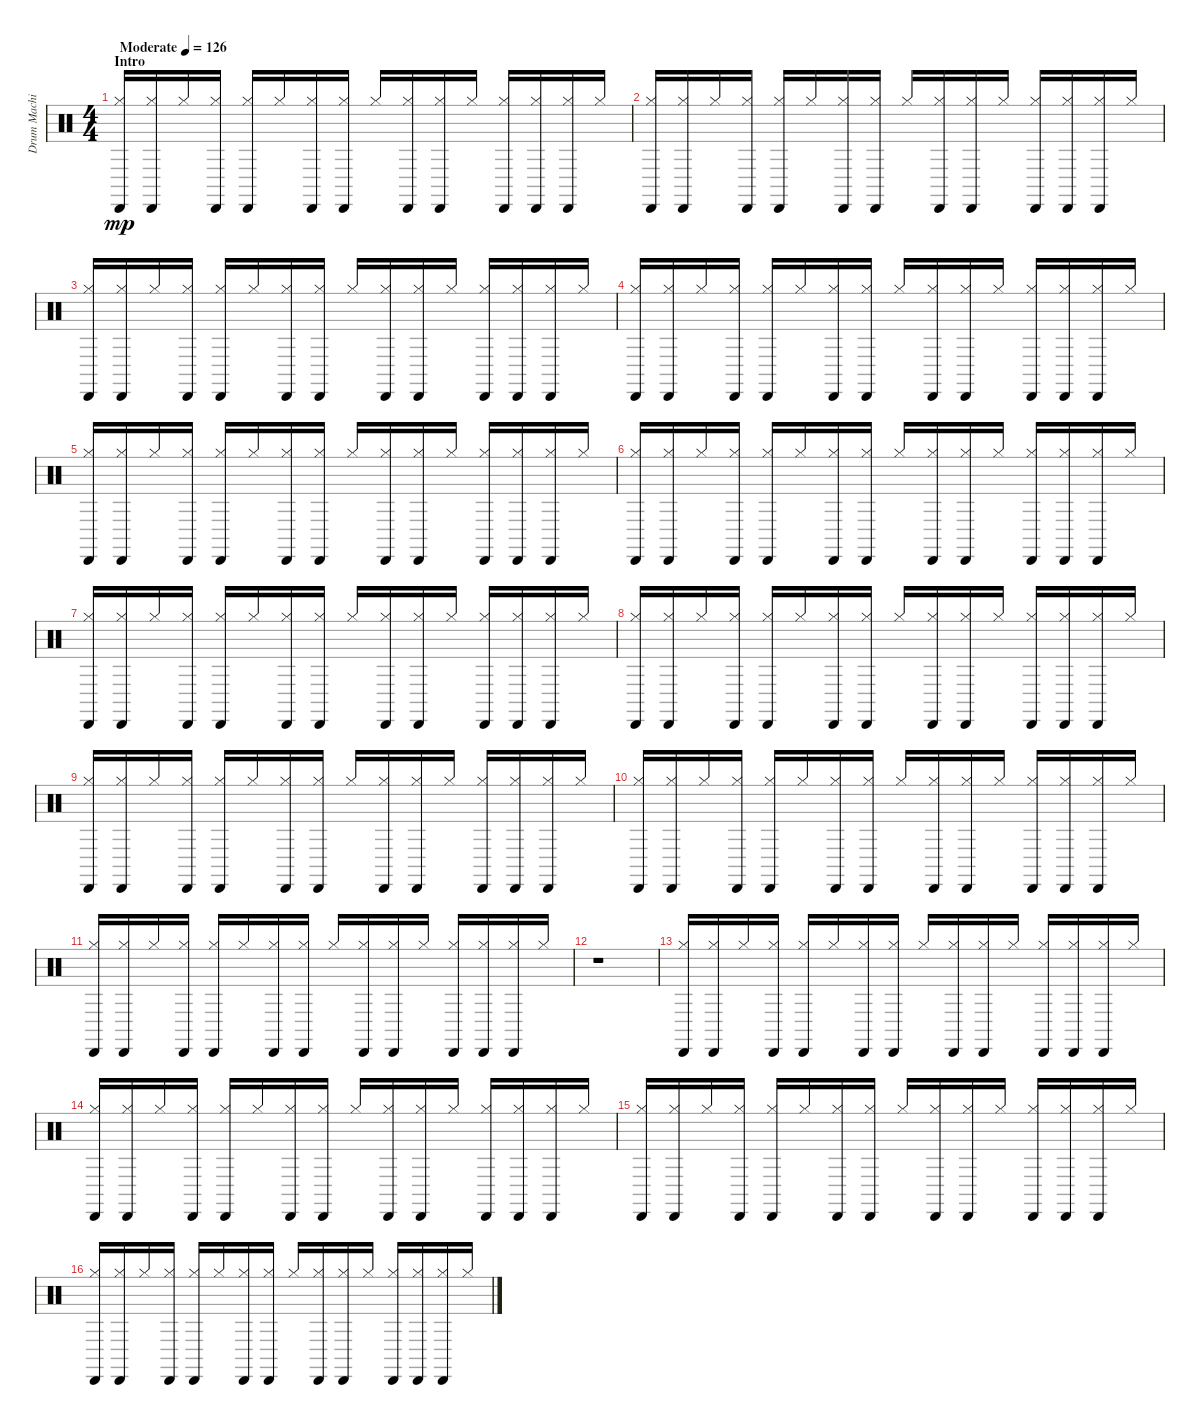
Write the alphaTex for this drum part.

\track ("Drum Machine" "Drum Machi") {instrument percussion}
\staff {score}
\articulation defaults
\ts (4 4)
\section ("" "Intro")
\tempo (126 "Moderate")
\clef neutral
\ks c
("Cabasa (hit)" "Hi-Hat (closed)").16{dy mp} ("Cabasa (hit)" "Hi-Hat (closed)").16 "Hi-Hat (closed)".16 ("Cabasa (hit)" "Hi-Hat (closed)").16 ("Cabasa (hit)" "Hi-Hat (closed)").16 "Hi-Hat (closed)".16 ("Cabasa (hit)" "Hi-Hat (closed)").16 ("Cabasa (hit)" "Hi-Hat (closed)").16 "Hi-Hat (closed)".16 ("Cabasa (hit)" "Hi-Hat (closed)").16 ("Cabasa (hit)" "Hi-Hat (closed)").16 "Hi-Hat (closed)".16 ("Cabasa (hit)" "Hi-Hat (closed)").16 ("Cabasa (hit)" "Hi-Hat (closed)").16 ("Cabasa (hit)" "Hi-Hat (closed)").16 "Hi-Hat (closed)".16 |
("Cabasa (hit)" "Hi-Hat (closed)").16 ("Cabasa (hit)" "Hi-Hat (closed)").16 "Hi-Hat (closed)".16 ("Cabasa (hit)" "Hi-Hat (closed)").16 ("Cabasa (hit)" "Hi-Hat (closed)").16 "Hi-Hat (closed)".16 ("Cabasa (hit)" "Hi-Hat (closed)").16 ("Cabasa (hit)" "Hi-Hat (closed)").16 "Hi-Hat (closed)".16 ("Cabasa (hit)" "Hi-Hat (closed)").16 ("Cabasa (hit)" "Hi-Hat (closed)").16 "Hi-Hat (closed)".16 ("Cabasa (hit)" "Hi-Hat (closed)").16 ("Cabasa (hit)" "Hi-Hat (closed)").16 ("Cabasa (hit)" "Hi-Hat (closed)").16 "Hi-Hat (closed)".16 |
("Cabasa (hit)" "Hi-Hat (closed)").16 ("Cabasa (hit)" "Hi-Hat (closed)").16 "Hi-Hat (closed)".16 ("Cabasa (hit)" "Hi-Hat (closed)").16 ("Cabasa (hit)" "Hi-Hat (closed)").16 "Hi-Hat (closed)".16 ("Cabasa (hit)" "Hi-Hat (closed)").16 ("Cabasa (hit)" "Hi-Hat (closed)").16 "Hi-Hat (closed)".16 ("Cabasa (hit)" "Hi-Hat (closed)").16 ("Cabasa (hit)" "Hi-Hat (closed)").16 "Hi-Hat (closed)".16 ("Cabasa (hit)" "Hi-Hat (closed)").16 ("Cabasa (hit)" "Hi-Hat (closed)").16 ("Cabasa (hit)" "Hi-Hat (closed)").16 "Hi-Hat (closed)".16 |
("Cabasa (hit)" "Hi-Hat (closed)").16 ("Cabasa (hit)" "Hi-Hat (closed)").16 "Hi-Hat (closed)".16 ("Cabasa (hit)" "Hi-Hat (closed)").16 ("Cabasa (hit)" "Hi-Hat (closed)").16 "Hi-Hat (closed)".16 ("Cabasa (hit)" "Hi-Hat (closed)").16 ("Cabasa (hit)" "Hi-Hat (closed)").16 "Hi-Hat (closed)".16 ("Cabasa (hit)" "Hi-Hat (closed)").16 ("Cabasa (hit)" "Hi-Hat (closed)").16 "Hi-Hat (closed)".16 ("Cabasa (hit)" "Hi-Hat (closed)").16 ("Cabasa (hit)" "Hi-Hat (closed)").16 ("Cabasa (hit)" "Hi-Hat (closed)").16 "Hi-Hat (closed)".16 |
("Cabasa (hit)" "Hi-Hat (closed)").16 ("Cabasa (hit)" "Hi-Hat (closed)").16 "Hi-Hat (closed)".16 ("Cabasa (hit)" "Hi-Hat (closed)").16 ("Cabasa (hit)" "Hi-Hat (closed)").16 "Hi-Hat (closed)".16 ("Cabasa (hit)" "Hi-Hat (closed)").16 ("Cabasa (hit)" "Hi-Hat (closed)").16 "Hi-Hat (closed)".16 ("Cabasa (hit)" "Hi-Hat (closed)").16 ("Cabasa (hit)" "Hi-Hat (closed)").16 "Hi-Hat (closed)".16 ("Cabasa (hit)" "Hi-Hat (closed)").16 ("Cabasa (hit)" "Hi-Hat (closed)").16 ("Cabasa (hit)" "Hi-Hat (closed)").16 "Hi-Hat (closed)".16 |
("Cabasa (hit)" "Hi-Hat (closed)").16 ("Cabasa (hit)" "Hi-Hat (closed)").16 "Hi-Hat (closed)".16 ("Cabasa (hit)" "Hi-Hat (closed)").16 ("Cabasa (hit)" "Hi-Hat (closed)").16 "Hi-Hat (closed)".16 ("Cabasa (hit)" "Hi-Hat (closed)").16 ("Cabasa (hit)" "Hi-Hat (closed)").16 "Hi-Hat (closed)".16 ("Cabasa (hit)" "Hi-Hat (closed)").16 ("Cabasa (hit)" "Hi-Hat (closed)").16 "Hi-Hat (closed)".16 ("Cabasa (hit)" "Hi-Hat (closed)").16 ("Cabasa (hit)" "Hi-Hat (closed)").16 ("Cabasa (hit)" "Hi-Hat (closed)").16 "Hi-Hat (closed)".16 |
("Cabasa (hit)" "Hi-Hat (closed)").16 ("Cabasa (hit)" "Hi-Hat (closed)").16 "Hi-Hat (closed)".16 ("Cabasa (hit)" "Hi-Hat (closed)").16 ("Cabasa (hit)" "Hi-Hat (closed)").16 "Hi-Hat (closed)".16 ("Cabasa (hit)" "Hi-Hat (closed)").16 ("Cabasa (hit)" "Hi-Hat (closed)").16 "Hi-Hat (closed)".16 ("Cabasa (hit)" "Hi-Hat (closed)").16 ("Cabasa (hit)" "Hi-Hat (closed)").16 "Hi-Hat (closed)".16 ("Cabasa (hit)" "Hi-Hat (closed)").16 ("Cabasa (hit)" "Hi-Hat (closed)").16 ("Cabasa (hit)" "Hi-Hat (closed)").16 "Hi-Hat (closed)".16 |
("Cabasa (hit)" "Hi-Hat (closed)").16 ("Cabasa (hit)" "Hi-Hat (closed)").16 "Hi-Hat (closed)".16 ("Cabasa (hit)" "Hi-Hat (closed)").16 ("Cabasa (hit)" "Hi-Hat (closed)").16 "Hi-Hat (closed)".16 ("Cabasa (hit)" "Hi-Hat (closed)").16 ("Cabasa (hit)" "Hi-Hat (closed)").16 "Hi-Hat (closed)".16 ("Cabasa (hit)" "Hi-Hat (closed)").16 ("Cabasa (hit)" "Hi-Hat (closed)").16 "Hi-Hat (closed)".16 ("Cabasa (hit)" "Hi-Hat (closed)").16 ("Cabasa (hit)" "Hi-Hat (closed)").16 ("Cabasa (hit)" "Hi-Hat (closed)").16 "Hi-Hat (closed)".16 |
("Cabasa (hit)" "Hi-Hat (closed)").16 ("Cabasa (hit)" "Hi-Hat (closed)").16 "Hi-Hat (closed)".16 ("Cabasa (hit)" "Hi-Hat (closed)").16 ("Cabasa (hit)" "Hi-Hat (closed)").16 "Hi-Hat (closed)".16 ("Cabasa (hit)" "Hi-Hat (closed)").16 ("Cabasa (hit)" "Hi-Hat (closed)").16 "Hi-Hat (closed)".16 ("Cabasa (hit)" "Hi-Hat (closed)").16 ("Cabasa (hit)" "Hi-Hat (closed)").16 "Hi-Hat (closed)".16 ("Cabasa (hit)" "Hi-Hat (closed)").16 ("Cabasa (hit)" "Hi-Hat (closed)").16 ("Cabasa (hit)" "Hi-Hat (closed)").16 "Hi-Hat (closed)".16 |
("Cabasa (hit)" "Hi-Hat (closed)").16 ("Cabasa (hit)" "Hi-Hat (closed)").16 "Hi-Hat (closed)".16 ("Cabasa (hit)" "Hi-Hat (closed)").16 ("Cabasa (hit)" "Hi-Hat (closed)").16 "Hi-Hat (closed)".16 ("Cabasa (hit)" "Hi-Hat (closed)").16 ("Cabasa (hit)" "Hi-Hat (closed)").16 "Hi-Hat (closed)".16 ("Cabasa (hit)" "Hi-Hat (closed)").16 ("Cabasa (hit)" "Hi-Hat (closed)").16 "Hi-Hat (closed)".16 ("Cabasa (hit)" "Hi-Hat (closed)").16 ("Cabasa (hit)" "Hi-Hat (closed)").16 ("Cabasa (hit)" "Hi-Hat (closed)").16 "Hi-Hat (closed)".16 |
("Cabasa (hit)" "Hi-Hat (closed)").16 ("Cabasa (hit)" "Hi-Hat (closed)").16 "Hi-Hat (closed)".16 ("Cabasa (hit)" "Hi-Hat (closed)").16 ("Cabasa (hit)" "Hi-Hat (closed)").16 "Hi-Hat (closed)".16 ("Cabasa (hit)" "Hi-Hat (closed)").16 ("Cabasa (hit)" "Hi-Hat (closed)").16 "Hi-Hat (closed)".16 ("Cabasa (hit)" "Hi-Hat (closed)").16 ("Cabasa (hit)" "Hi-Hat (closed)").16 "Hi-Hat (closed)".16 ("Cabasa (hit)" "Hi-Hat (closed)").16 ("Cabasa (hit)" "Hi-Hat (closed)").16 ("Cabasa (hit)" "Hi-Hat (closed)").16 "Hi-Hat (closed)".16 |
r.1 |
("Cabasa (hit)" "Hi-Hat (closed)").16 ("Cabasa (hit)" "Hi-Hat (closed)").16 "Hi-Hat (closed)".16 ("Cabasa (hit)" "Hi-Hat (closed)").16 ("Cabasa (hit)" "Hi-Hat (closed)").16 "Hi-Hat (closed)".16 ("Cabasa (hit)" "Hi-Hat (closed)").16 ("Cabasa (hit)" "Hi-Hat (closed)").16 "Hi-Hat (closed)".16 ("Cabasa (hit)" "Hi-Hat (closed)").16 ("Cabasa (hit)" "Hi-Hat (closed)").16 "Hi-Hat (closed)".16 ("Cabasa (hit)" "Hi-Hat (closed)").16 ("Cabasa (hit)" "Hi-Hat (closed)").16 ("Cabasa (hit)" "Hi-Hat (closed)").16 "Hi-Hat (closed)".16 |
("Cabasa (hit)" "Hi-Hat (closed)").16 ("Cabasa (hit)" "Hi-Hat (closed)").16 "Hi-Hat (closed)".16 ("Cabasa (hit)" "Hi-Hat (closed)").16 ("Cabasa (hit)" "Hi-Hat (closed)").16 "Hi-Hat (closed)".16 ("Cabasa (hit)" "Hi-Hat (closed)").16 ("Cabasa (hit)" "Hi-Hat (closed)").16 "Hi-Hat (closed)".16 ("Cabasa (hit)" "Hi-Hat (closed)").16 ("Cabasa (hit)" "Hi-Hat (closed)").16 "Hi-Hat (closed)".16 ("Cabasa (hit)" "Hi-Hat (closed)").16 ("Cabasa (hit)" "Hi-Hat (closed)").16 ("Cabasa (hit)" "Hi-Hat (closed)").16 "Hi-Hat (closed)".16 |
("Cabasa (hit)" "Hi-Hat (closed)").16 ("Cabasa (hit)" "Hi-Hat (closed)").16 "Hi-Hat (closed)".16 ("Cabasa (hit)" "Hi-Hat (closed)").16 ("Cabasa (hit)" "Hi-Hat (closed)").16 "Hi-Hat (closed)".16 ("Cabasa (hit)" "Hi-Hat (closed)").16 ("Cabasa (hit)" "Hi-Hat (closed)").16 "Hi-Hat (closed)".16 ("Cabasa (hit)" "Hi-Hat (closed)").16 ("Cabasa (hit)" "Hi-Hat (closed)").16 "Hi-Hat (closed)".16 ("Cabasa (hit)" "Hi-Hat (closed)").16 ("Cabasa (hit)" "Hi-Hat (closed)").16 ("Cabasa (hit)" "Hi-Hat (closed)").16 "Hi-Hat (closed)".16 |
("Cabasa (hit)" "Hi-Hat (closed)").16 ("Cabasa (hit)" "Hi-Hat (closed)").16 "Hi-Hat (closed)".16 ("Cabasa (hit)" "Hi-Hat (closed)").16 ("Cabasa (hit)" "Hi-Hat (closed)").16 "Hi-Hat (closed)".16 ("Cabasa (hit)" "Hi-Hat (closed)").16 ("Cabasa (hit)" "Hi-Hat (closed)").16 "Hi-Hat (closed)".16 ("Cabasa (hit)" "Hi-Hat (closed)").16 ("Cabasa (hit)" "Hi-Hat (closed)").16 "Hi-Hat (closed)".16 ("Cabasa (hit)" "Hi-Hat (closed)").16 ("Cabasa (hit)" "Hi-Hat (closed)").16 ("Cabasa (hit)" "Hi-Hat (closed)").16 "Hi-Hat (closed)".16
